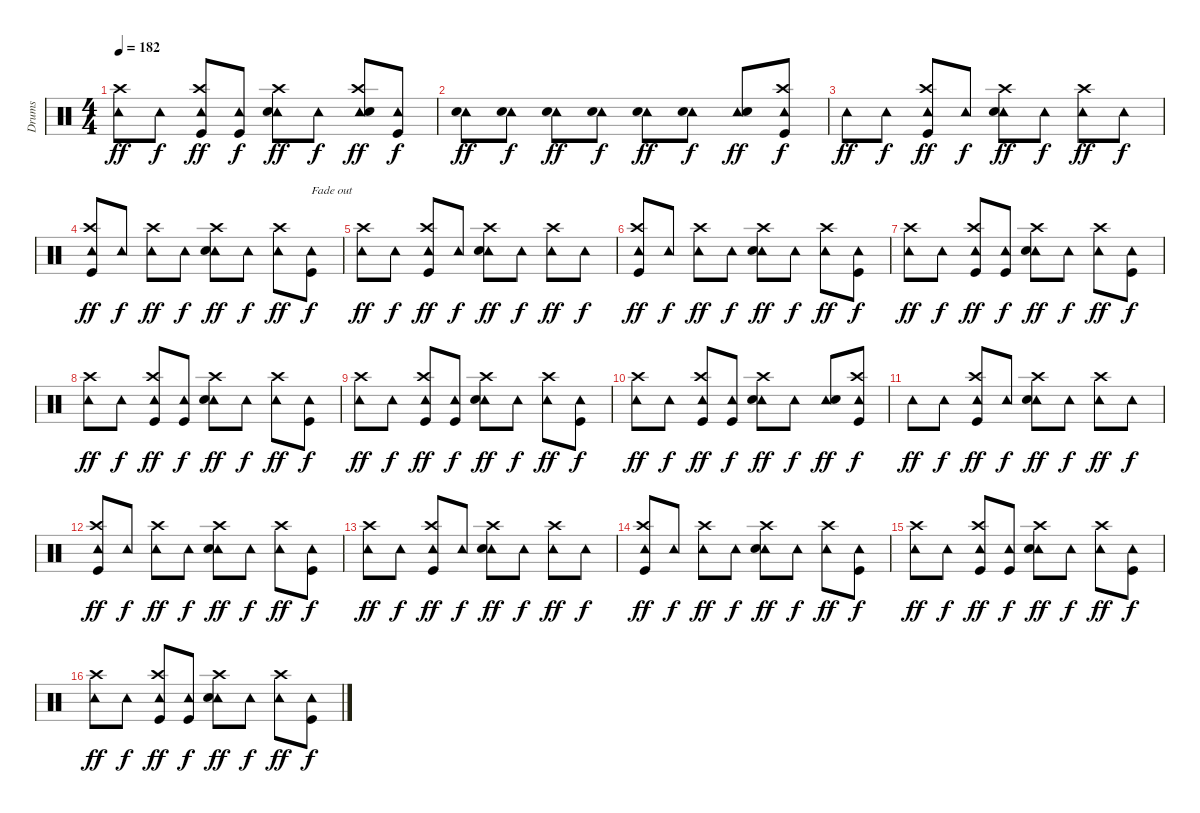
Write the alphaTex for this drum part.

\track ("Drums" "Drums") {instrument percussion}
\staff {score}
\articulation defaults
\ts (4 4)
\tempo 182
\clef neutral
\ks c
("Tambourine (hit)" "Crash high (hit)").8{dy ff} "Tambourine (hit)".8{dy f} ("Tambourine (hit)" "Crash high (hit)" "Kick (hit)").8{dy ff} ("Tambourine (hit)" "Kick (hit)").8{dy f} ("Tambourine (hit)" "Crash high (hit)" "Electric Snare (hit)").8{dy ff} "Tambourine (hit)".8{dy f} ("Tambourine (hit)" "Electric Snare (hit)" "Crash high (hit)").8{dy ff} ("Tambourine (hit)" "Kick (hit)").8{dy f} |
("Tambourine (hit)" "Electric Snare (hit)").8{dy ff} ("Tambourine (hit)" "Electric Snare (hit)").8{dy f} ("Tambourine (hit)" "Electric Snare (hit)").8{dy ff} ("Tambourine (hit)" "Electric Snare (hit)").8{dy f} ("Tambourine (hit)" "Electric Snare (hit)").8{dy ff} ("Tambourine (hit)" "Electric Snare (hit)").8{dy f} ("Tambourine (hit)" "Electric Snare (hit)").8{dy ff} ("Tambourine (hit)" "Crash high (hit)" "Kick (hit)").8{dy f} |
"Tambourine (hit)".8{dy ff} "Tambourine (hit)".8{dy f} ("Tambourine (hit)" "Crash high (hit)" "Kick (hit)").8{dy ff} "Tambourine (hit)".8{dy f} ("Tambourine (hit)" "Crash high (hit)" "Electric Snare (hit)").8{dy ff} "Tambourine (hit)".8{dy f} ("Tambourine (hit)" "Crash high (hit)").8{dy ff} "Tambourine (hit)".8{dy f} |
("Tambourine (hit)" "Kick (hit)" "Crash high (hit)").8{dy ff} "Tambourine (hit)".8{dy f} ("Tambourine (hit)" "Crash high (hit)").8{dy ff} "Tambourine (hit)".8{dy f} ("Tambourine (hit)" "Crash high (hit)" "Electric Snare (hit)").8{dy ff} "Tambourine (hit)".8{dy f} ("Tambourine (hit)" "Crash high (hit)").8{dy ff} ("Tambourine (hit)" "Kick (hit)").8{txt "Fade out" dy f} |
("Tambourine (hit)" "Crash high (hit)").8{dy ff} "Tambourine (hit)".8{dy f} ("Tambourine (hit)" "Crash high (hit)" "Kick (hit)").8{dy ff} "Tambourine (hit)".8{dy f} ("Tambourine (hit)" "Crash high (hit)" "Electric Snare (hit)").8{dy ff} "Tambourine (hit)".8{dy f} ("Tambourine (hit)" "Crash high (hit)").8{dy ff} "Tambourine (hit)".8{dy f} |
("Tambourine (hit)" "Kick (hit)" "Crash high (hit)").8{dy ff} "Tambourine (hit)".8{dy f} ("Tambourine (hit)" "Crash high (hit)").8{dy ff} "Tambourine (hit)".8{dy f} ("Tambourine (hit)" "Crash high (hit)" "Electric Snare (hit)").8{dy ff} "Tambourine (hit)".8{dy f} ("Tambourine (hit)" "Crash high (hit)").8{dy ff} ("Tambourine (hit)" "Kick (hit)").8{dy f} |
("Tambourine (hit)" "Crash high (hit)").8{dy ff} "Tambourine (hit)".8{dy f} ("Tambourine (hit)" "Crash high (hit)" "Kick (hit)").8{dy ff} ("Tambourine (hit)" "Kick (hit)").8{dy f} ("Tambourine (hit)" "Crash high (hit)" "Electric Snare (hit)").8{dy ff} "Tambourine (hit)".8{dy f} ("Tambourine (hit)" "Crash high (hit)").8{dy ff} ("Tambourine (hit)" "Kick (hit)").8{dy f} |
("Tambourine (hit)" "Crash high (hit)").8{dy ff} "Tambourine (hit)".8{dy f} ("Tambourine (hit)" "Crash high (hit)" "Kick (hit)").8{dy ff} ("Tambourine (hit)" "Kick (hit)").8{dy f} ("Tambourine (hit)" "Crash high (hit)" "Electric Snare (hit)").8{dy ff} "Tambourine (hit)".8{dy f} ("Tambourine (hit)" "Crash high (hit)").8{dy ff} ("Tambourine (hit)" "Kick (hit)").8{dy f} |
("Tambourine (hit)" "Crash high (hit)").8{dy ff} "Tambourine (hit)".8{dy f} ("Tambourine (hit)" "Crash high (hit)" "Kick (hit)").8{dy ff} ("Tambourine (hit)" "Kick (hit)").8{dy f} ("Tambourine (hit)" "Crash high (hit)" "Electric Snare (hit)").8{dy ff} "Tambourine (hit)".8{dy f} ("Tambourine (hit)" "Crash high (hit)").8{dy ff} ("Tambourine (hit)" "Kick (hit)").8{dy f} |
("Tambourine (hit)" "Crash high (hit)").8{dy ff} "Tambourine (hit)".8{dy f} ("Tambourine (hit)" "Crash high (hit)" "Kick (hit)").8{dy ff} ("Tambourine (hit)" "Kick (hit)").8{dy f} ("Tambourine (hit)" "Crash high (hit)" "Electric Snare (hit)").8{dy ff} "Tambourine (hit)".8{dy f} ("Tambourine (hit)" "Electric Snare (hit)").8{dy ff} ("Tambourine (hit)" "Crash high (hit)" "Kick (hit)").8{dy f} |
"Tambourine (hit)".8{dy ff} "Tambourine (hit)".8{dy f} ("Tambourine (hit)" "Crash high (hit)" "Kick (hit)").8{dy ff} "Tambourine (hit)".8{dy f} ("Tambourine (hit)" "Crash high (hit)" "Electric Snare (hit)").8{dy ff} "Tambourine (hit)".8{dy f} ("Tambourine (hit)" "Crash high (hit)").8{dy ff} "Tambourine (hit)".8{dy f} |
("Tambourine (hit)" "Kick (hit)" "Crash high (hit)").8{dy ff} "Tambourine (hit)".8{dy f} ("Tambourine (hit)" "Crash high (hit)").8{dy ff} "Tambourine (hit)".8{dy f} ("Tambourine (hit)" "Crash high (hit)" "Electric Snare (hit)").8{dy ff} "Tambourine (hit)".8{dy f} ("Tambourine (hit)" "Crash high (hit)").8{dy ff} ("Tambourine (hit)" "Kick (hit)").8{dy f} |
("Tambourine (hit)" "Crash high (hit)").8{dy ff} "Tambourine (hit)".8{dy f} ("Tambourine (hit)" "Crash high (hit)" "Kick (hit)").8{dy ff} "Tambourine (hit)".8{dy f} ("Tambourine (hit)" "Crash high (hit)" "Electric Snare (hit)").8{dy ff} "Tambourine (hit)".8{dy f} ("Tambourine (hit)" "Crash high (hit)").8{dy ff} "Tambourine (hit)".8{dy f} |
("Tambourine (hit)" "Kick (hit)" "Crash high (hit)").8{dy ff} "Tambourine (hit)".8{dy f} ("Tambourine (hit)" "Crash high (hit)").8{dy ff} "Tambourine (hit)".8{dy f} ("Tambourine (hit)" "Crash high (hit)" "Electric Snare (hit)").8{dy ff} "Tambourine (hit)".8{dy f} ("Tambourine (hit)" "Crash high (hit)").8{dy ff} ("Tambourine (hit)" "Kick (hit)").8{dy f} |
("Tambourine (hit)" "Crash high (hit)").8{dy ff} "Tambourine (hit)".8{dy f} ("Tambourine (hit)" "Crash high (hit)" "Kick (hit)").8{dy ff} ("Tambourine (hit)" "Kick (hit)").8{dy f} ("Tambourine (hit)" "Crash high (hit)" "Electric Snare (hit)").8{dy ff} "Tambourine (hit)".8{dy f} ("Tambourine (hit)" "Crash high (hit)").8{dy ff} ("Tambourine (hit)" "Kick (hit)").8{dy f} |
("Tambourine (hit)" "Crash high (hit)").8{dy ff} "Tambourine (hit)".8{dy f} ("Tambourine (hit)" "Crash high (hit)" "Kick (hit)").8{dy ff} ("Tambourine (hit)" "Kick (hit)").8{dy f} ("Tambourine (hit)" "Crash high (hit)" "Electric Snare (hit)").8{dy ff} "Tambourine (hit)".8{dy f} ("Tambourine (hit)" "Crash high (hit)").8{dy ff} ("Tambourine (hit)" "Kick (hit)").8{dy f}
